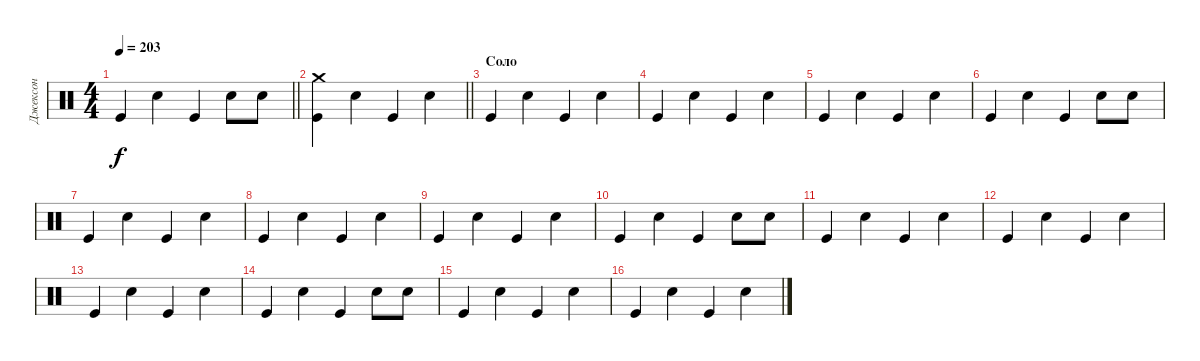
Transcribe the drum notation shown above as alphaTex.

\track ("Джексон" "Джексон") {instrument percussion}
\staff {score}
\articulation defaults
\ts (4 4)
\tempo 203
\clef neutral
\barLineRight lightlight
\ks c "Kick (hit)".4{dy f} "Snare (hit) 2".4 "Kick (hit)".4 "Snare (hit) 2".8 "Snare (hit) 2".8
|
\barLineRight lightlight
("Crash medium (hit)" "Kick (hit)").4 "Snare (hit) 2".4 "Kick (hit)".4 "Snare (hit) 2".4 |
\section ("" "Соло")
"Kick (hit)".4 "Snare (hit) 2".4 "Kick (hit)".4 "Snare (hit) 2".4 |
"Kick (hit)".4 "Snare (hit) 2".4 "Kick (hit)".4 "Snare (hit) 2".4 |
"Kick (hit)".4 "Snare (hit) 2".4 "Kick (hit)".4 "Snare (hit) 2".4 |
"Kick (hit)".4 "Snare (hit) 2".4 "Kick (hit)".4 "Snare (hit) 2".8 "Snare (hit) 2".8 |
"Kick (hit)".4 "Snare (hit) 2".4 "Kick (hit)".4 "Snare (hit) 2".4 |
"Kick (hit)".4 "Snare (hit) 2".4 "Kick (hit)".4 "Snare (hit) 2".4 |
"Kick (hit)".4 "Snare (hit) 2".4 "Kick (hit)".4 "Snare (hit) 2".4 |
"Kick (hit)".4 "Snare (hit) 2".4 "Kick (hit)".4 "Snare (hit) 2".8 "Snare (hit) 2".8 |
"Kick (hit)".4 "Snare (hit) 2".4 "Kick (hit)".4 "Snare (hit) 2".4 |
"Kick (hit)".4 "Snare (hit) 2".4 "Kick (hit)".4 "Snare (hit) 2".4 |
"Kick (hit)".4 "Snare (hit) 2".4 "Kick (hit)".4 "Snare (hit) 2".4 |
"Kick (hit)".4 "Snare (hit) 2".4 "Kick (hit)".4 "Snare (hit) 2".8 "Snare (hit) 2".8 |
"Kick (hit)".4 "Snare (hit) 2".4 "Kick (hit)".4 "Snare (hit) 2".4 |
"Kick (hit)".4 "Snare (hit) 2".4 "Kick (hit)".4 "Snare (hit) 2".4
